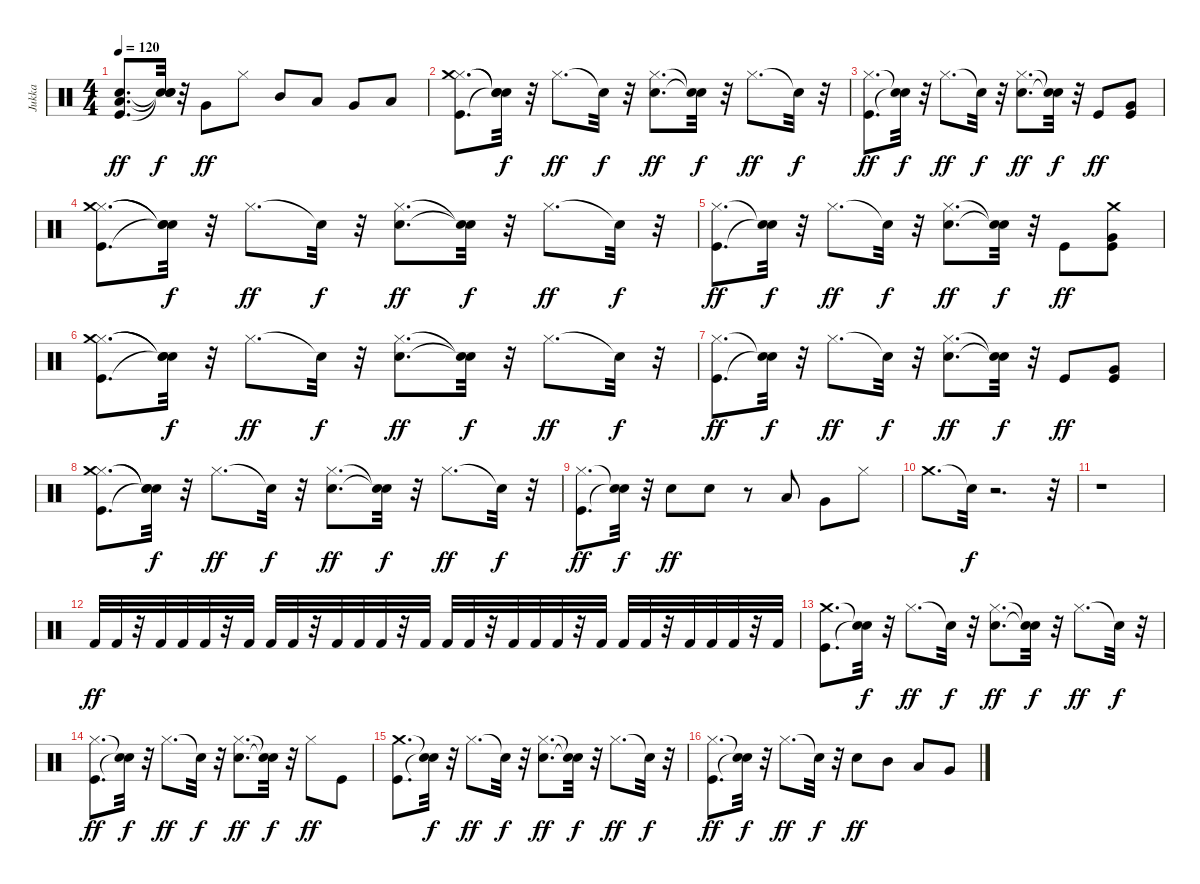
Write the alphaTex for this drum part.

\track ("Jukka" "Jukka") {instrument percussion}
\staff {score}
\articulation defaults
\ts (4 4)
\tempo 120
\clef neutral
\ks c
("Kick (hit)" "Electric Snare (hit)" "Low Floor Tom (hit)").8{d dy ff} ("Snare (hit)"{t} "Snare (hit)"{t} "Snare (hit)"{t}).32{dy f} r.32 "Very Low Tom (hit)".8{dy ff} "Hi-Hat (closed)".8 "Mid Tom (hit)".8 "Low Tom (hit)".8 "Very Low Tom (hit)".8 "Low Floor Tom (hit)".8 |
("Kick (hit)" "Hi-Hat (closed)" "Crash medium (hit)").8{d} ("Snare (hit)"{t} "Snare (hit)"{t} "Snare (hit)"{t}).32{dy f} r.32 "Hi-Hat (closed)".8{d dy ff} "Snare (hit)"{t}.32{dy f} r.32 ("Electric Snare (hit)" "Hi-Hat (closed)").8{d dy ff} ("Snare (hit)"{t} "Snare (hit)"{t}).32{dy f} r.32 "Hi-Hat (closed)".8{d dy ff} "Snare (hit)"{t}.32{dy f} r.32 |
("Kick (hit)" "Hi-Hat (closed)").8{d dy ff} ("Snare (hit)"{t} "Snare (hit)"{t}).32{dy f} r.32 "Hi-Hat (closed)".8{d dy ff} "Snare (hit)"{t}.32{dy f} r.32 ("Electric Snare (hit)" "Hi-Hat (closed)").8{d dy ff} ("Snare (hit)"{t} "Snare (hit)"{t}).32{dy f} r.32 "Kick (hit)".8{dy ff} ("Kick (hit)" "Very Low Tom (hit)").8 |
("Kick (hit)" "Hi-Hat (closed)" "Crash medium (hit)").8{d} ("Snare (hit)"{t} "Snare (hit)"{t} "Snare (hit)"{t}).32{dy f} r.32 "Hi-Hat (closed)".8{d dy ff} "Snare (hit)"{t}.32{dy f} r.32 ("Electric Snare (hit)" "Hi-Hat (closed)").8{d dy ff} ("Snare (hit)"{t} "Snare (hit)"{t}).32{dy f} r.32 "Hi-Hat (closed)".8{d dy ff} "Snare (hit)"{t}.32{dy f} r.32 |
("Kick (hit)" "Hi-Hat (closed)").8{d dy ff} ("Snare (hit)"{t} "Snare (hit)"{t}).32{dy f} r.32 "Hi-Hat (closed)".8{d dy ff} "Snare (hit)"{t}.32{dy f} r.32 ("Electric Snare (hit)" "Hi-Hat (closed)").8{d dy ff} ("Snare (hit)"{t} "Snare (hit)"{t}).32{dy f} r.32 "Kick (hit)".8{dy ff} ("Kick (hit)" "Very Low Tom (hit)" "Crash medium (hit)").8 |
("Kick (hit)" "Hi-Hat (closed)" "Crash medium (hit)").8{d} ("Snare (hit)"{t} "Snare (hit)"{t} "Snare (hit)"{t}).32{dy f} r.32 "Hi-Hat (closed)".8{d dy ff} "Snare (hit)"{t}.32{dy f} r.32 ("Electric Snare (hit)" "Hi-Hat (closed)").8{d dy ff} ("Snare (hit)"{t} "Snare (hit)"{t}).32{dy f} r.32 "Hi-Hat (closed)".8{d dy ff} "Snare (hit)"{t}.32{dy f} r.32 |
("Kick (hit)" "Hi-Hat (closed)").8{d dy ff} ("Snare (hit)"{t} "Snare (hit)"{t}).32{dy f} r.32 "Hi-Hat (closed)".8{d dy ff} "Snare (hit)"{t}.32{dy f} r.32 ("Electric Snare (hit)" "Hi-Hat (closed)").8{d dy ff} ("Snare (hit)"{t} "Snare (hit)"{t}).32{dy f} r.32 "Kick (hit)".8{dy ff} ("Kick (hit)" "Very Low Tom (hit)").8 |
("Kick (hit)" "Hi-Hat (closed)" "Crash medium (hit)").8{d} ("Snare (hit)"{t} "Snare (hit)"{t} "Snare (hit)"{t}).32{dy f} r.32 "Hi-Hat (closed)".8{d dy ff} "Snare (hit)"{t}.32{dy f} r.32 ("Electric Snare (hit)" "Hi-Hat (closed)").8{d dy ff} ("Snare (hit)"{t} "Snare (hit)"{t}).32{dy f} r.32 "Hi-Hat (closed)".8{d dy ff} "Snare (hit)"{t}.32{dy f} r.32 |
("Kick (hit)" "Hi-Hat (closed)").8{d dy ff} ("Snare (hit)"{t} "Snare (hit)"{t}).32{dy f} r.32 "Electric Snare (hit)".8{dy ff} "Electric Snare (hit)".8 r.8 "Low Tom (hit)".8 "Very Low Tom (hit)".8 "Hi-Hat (closed)".8 |
"Crash medium (hit)".8{d} "Snare (hit)"{t}.32{dy f} r.2{d} r.32 |
r.1 |
"Kick (hit) 2".32{dy ff volume 4} "Kick (hit) 2".32{volume 5} r.32 "Kick (hit) 2".32{volume 6} "Kick (hit) 2".32{volume 6} "Kick (hit) 2".32{volume 7} r.32 "Kick (hit) 2".32{volume 8} "Kick (hit) 2".32{volume 9} "Kick (hit) 2".32{volume 9} r.32 "Kick (hit) 2".32{volume 10} "Kick (hit) 2".32{volume 11} "Kick (hit) 2".32{volume 11} r.32 "Kick (hit) 2".32{volume 12} "Kick (hit) 2".32{volume 12} "Kick (hit) 2".32{volume 13} r.32 "Kick (hit) 2".32{volume 14} "Kick (hit) 2".32{volume 14} "Kick (hit) 2".32{volume 15} r.32 "Kick (hit) 2".32{volume 15} "Kick (hit) 2".32{volume 16} "Kick (hit) 2".32 r.32 "Kick (hit) 2".32 "Kick (hit) 2".32 "Kick (hit) 2".32 r.32 "Kick (hit) 2".32 |
("Kick (hit)" "Crash medium (hit)").8{d} ("Snare (hit)"{t} "Snare (hit)"{t}).32{dy f} r.32 "Hi-Hat (closed)".8{d dy ff} "Snare (hit)"{t}.32{dy f} r.32 ("Electric Snare (hit)" "Hi-Hat (closed)").8{d dy ff} ("Snare (hit)"{t} "Snare (hit)"{t}).32{dy f} r.32 "Hi-Hat (closed)".8{d dy ff} "Snare (hit)"{t}.32{dy f} r.32 |
("Kick (hit)" "Hi-Hat (closed)").8{d dy ff} ("Snare (hit)"{t} "Snare (hit)"{t}).32{dy f} r.32 "Hi-Hat (closed)".8{d dy ff} "Snare (hit)"{t}.32{dy f} r.32 ("Electric Snare (hit)" "Hi-Hat (closed)").8{d dy ff} ("Snare (hit)"{t} "Snare (hit)"{t}).32{dy f} r.32 "Hi-Hat (closed)".8{dy ff} "Kick (hit)".8 |
("Kick (hit)" "Crash medium (hit)").8{d} ("Snare (hit)"{t} "Snare (hit)"{t}).32{dy f} r.32 "Hi-Hat (closed)".8{d dy ff} "Snare (hit)"{t}.32{dy f} r.32 ("Electric Snare (hit)" "Hi-Hat (closed)").8{d dy ff} ("Snare (hit)"{t} "Snare (hit)"{t}).32{dy f} r.32 "Hi-Hat (closed)".8{d dy ff} "Snare (hit)"{t}.32{dy f} r.32 |
("Kick (hit)" "Hi-Hat (closed)").8{d dy ff} ("Snare (hit)"{t} "Snare (hit)"{t}).32{dy f} r.32 "Hi-Hat (closed)".8{d dy ff} "Snare (hit)"{t}.32{dy f} r.32 "Electric Snare (hit)".8{dy ff} "Mid Tom (hit)".8 "Low Tom (hit)".8 "Very Low Tom (hit)".8
